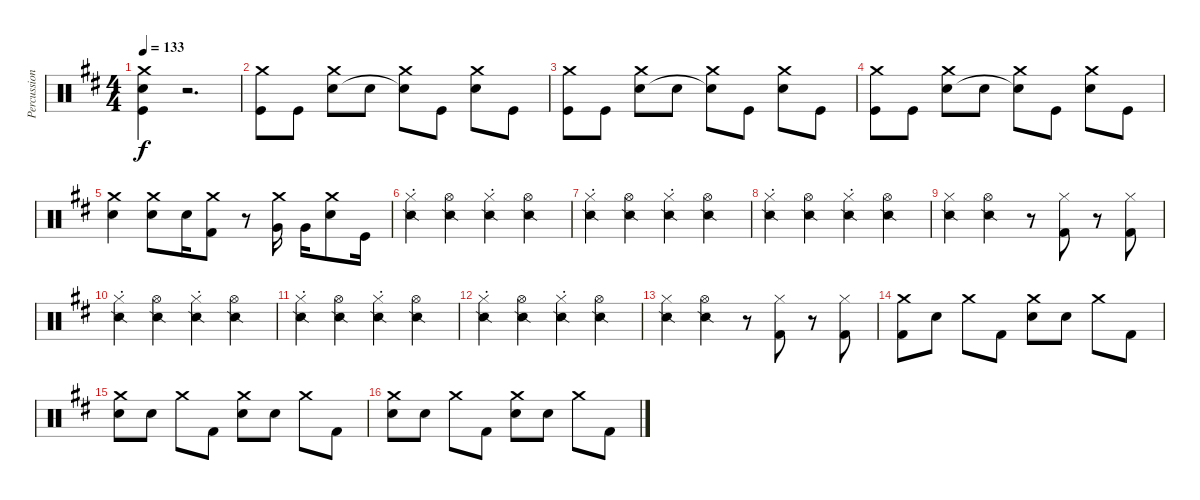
\track ("Percussion" "Percussion") {instrument percussion}
\staff {score}
\articulation defaults
\ts (4 4)
\tempo 133
\clef neutral
\ks d
("Crash medium (hit)" "Snare (hit) 2" "Kick (hit)").4{dy f} r.2{d} |
("Crash medium (hit)" "Kick (hit)").8 "Kick (hit)".8 ("Crash medium (hit)" "Electric Snare (hit)").8 "Snare (hit) 2".8 ("Crash medium (hit)" "Snare (hit)"{t}).8 "Kick (hit)".8 ("Crash medium (hit)" "Snare (hit) 2").8 "Kick (hit)".8 |
("Crash medium (hit)" "Kick (hit)").8 "Kick (hit)".8 ("Crash medium (hit)" "Electric Snare (hit)").8 "Snare (hit) 2".8 ("Crash medium (hit)" "Snare (hit)"{t}).8 "Kick (hit)".8 ("Crash medium (hit)" "Snare (hit) 2").8 "Kick (hit)".8 |
("Crash medium (hit)" "Kick (hit)").8 "Kick (hit)".8 ("Crash medium (hit)" "Electric Snare (hit)").8 "Snare (hit) 2".8 ("Crash medium (hit)" "Snare (hit)"{t}).8 "Kick (hit)".8 ("Crash medium (hit)" "Snare (hit) 2").8 "Kick (hit)".8 |
("Crash medium (hit)" "Snare (hit) 2").4 ("Crash medium (hit)" "Electric Snare (hit)").8 "Electric Snare (hit)".16 ("Crash medium (hit)" "Kick (hit) 2").8 r.8 ("Crash medium (hit)" "Very Low Tom (hit)").16 "Very Low Tom (hit)".16 ("Crash medium (hit)" "Snare (hit) 2").8 "Kick (hit)".16 |
("Hi-Hat (closed)"{st} "Snare (side stick) 2").4 ("Hi-Hat (open)" "Snare (side stick) 2").4 ("Hi-Hat (closed)"{st} "Snare (side stick) 2").4 ("Hi-Hat (open)" "Snare (side stick) 2").4 |
("Hi-Hat (closed)"{st} "Snare (side stick) 2").4 ("Hi-Hat (open)" "Snare (side stick) 2").4 ("Hi-Hat (closed)"{st} "Snare (side stick) 2").4 ("Hi-Hat (open)" "Snare (side stick) 2").4 |
("Hi-Hat (closed)"{st} "Snare (side stick) 2").4 ("Hi-Hat (open)" "Snare (side stick) 2").4 ("Hi-Hat (closed)"{st} "Snare (side stick) 2").4 ("Hi-Hat (open)" "Snare (side stick) 2").4 |
("Hi-Hat (closed)" "Snare (side stick) 2").4 ("Hi-Hat (open)" "Snare (side stick) 2").4 r.8 ("Hi-Hat (closed)" "Kick (hit) 2").8 r.8 ("Hi-Hat (closed)" "Kick (hit) 2").8 |
("Hi-Hat (closed)"{st} "Snare (side stick) 2").4 ("Hi-Hat (open)" "Snare (side stick) 2").4 ("Hi-Hat (closed)"{st} "Snare (side stick) 2").4 ("Hi-Hat (open)" "Snare (side stick) 2").4 |
("Hi-Hat (closed)"{st} "Snare (side stick) 2").4 ("Hi-Hat (open)" "Snare (side stick) 2").4 ("Hi-Hat (closed)"{st} "Snare (side stick) 2").4 ("Hi-Hat (open)" "Snare (side stick) 2").4 |
("Hi-Hat (closed)"{st} "Snare (side stick) 2").4 ("Hi-Hat (open)" "Snare (side stick) 2").4 ("Hi-Hat (closed)"{st} "Snare (side stick) 2").4 ("Hi-Hat (open)" "Snare (side stick) 2").4 |
("Hi-Hat (closed)" "Snare (side stick) 2").4 ("Hi-Hat (open)" "Snare (side stick) 2").4 r.8 ("Hi-Hat (closed)" "Kick (hit) 2").8 r.8 ("Hi-Hat (closed)" "Kick (hit) 2").8 |
("Crash medium (hit)" "Kick (hit) 2").8 "Electric Snare (hit)".8 "Crash medium (hit)".8 "Kick (hit) 2".8 ("Crash medium (hit)" "Electric Snare (hit)").8 "Snare (hit) 2".8 "Crash medium (hit)".8 "Kick (hit) 2".8 |
("Crash medium (hit)" "Electric Snare (hit)").8 "Snare (hit) 2".8 "Crash medium (hit)".8 "Kick (hit) 2".8 ("Crash medium (hit)" "Electric Snare (hit)").8 "Snare (hit) 2".8 "Crash medium (hit)".8 "Kick (hit) 2".8 |
("Crash medium (hit)" "Electric Snare (hit)").8 "Snare (hit) 2".8 "Crash medium (hit)".8 "Kick (hit) 2".8 ("Crash medium (hit)" "Electric Snare (hit)").8 "Snare (hit) 2".8 "Crash medium (hit)".8 "Kick (hit) 2".8
